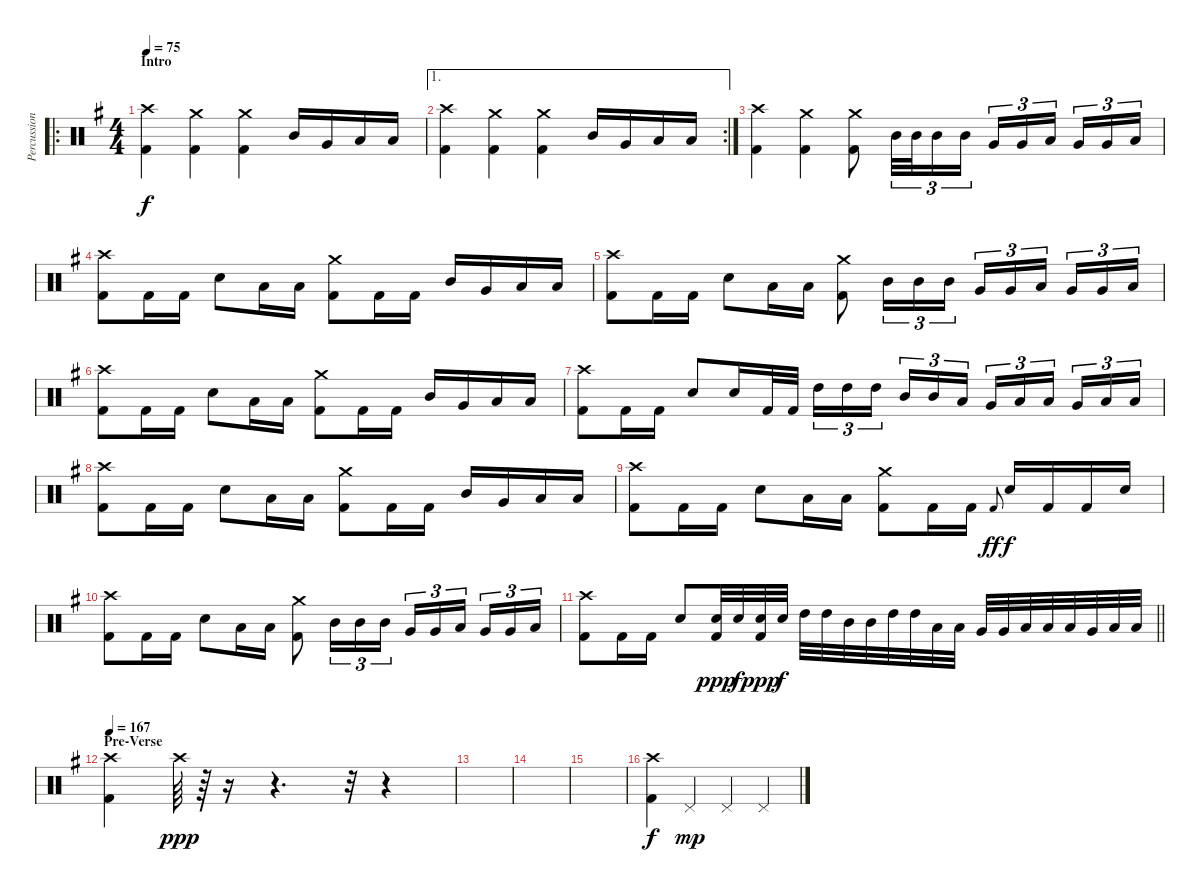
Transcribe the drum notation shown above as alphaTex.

\track ("Percussion" "Percussion") {instrument percussion}
\staff {score}
\articulation defaults
\ro
\ts (4 4)
\section ("" "Intro")
\tempo 75
\clef neutral
\ks g
("Crash high (hit)" "Kick (hit) 2").4{dy f} ("Crash medium (hit)" "Kick (hit) 2").4 ("Crash medium (hit)" "Kick (hit) 2").4 "Mid Tom (hit)".16 "Very Low Tom (hit)".16 "Low Tom (hit)".16 "Low Floor Tom (hit)".16 |
\ae 1
\rc 2
("Crash high (hit)" "Kick (hit) 2").4 ("Crash medium (hit)" "Kick (hit) 2").4 ("Crash medium (hit)" "Kick (hit) 2").4 "Mid Tom (hit)".16 "Very Low Tom (hit)".16 "Low Tom (hit)".16 "Low Floor Tom (hit)".16 |
("Crash high (hit)" "Kick (hit) 2").4 ("Crash medium (hit)" "Kick (hit) 2").4 ("Crash medium (hit)" "Kick (hit) 2").8 "Mid Tom (hit)".32{tu (3 2)} "Mid Tom (hit)".32{tu (3 2)} "Mid Tom (hit)".16{tu (3 2)} "Mid Tom (hit)".16{tu (3 2)} "Very Low Tom (hit)".16{tu (3 2)} "Very Low Tom (hit)".16{tu (3 2)} "Low Tom (hit)".16{tu (3 2) beam splitsecondary} "Very Low Tom (hit)".16{tu (3 2)} "Very Low Tom (hit)".16{tu (3 2)} "Low Floor Tom (hit)".16{tu (3 2)} |
("Crash high (hit)" "Kick (hit) 2").8 "Kick (hit) 2".16 "Kick (hit) 2".16 "Snare (hit) 2".8 "Low Tom (hit)".16 "Low Tom (hit)".16 ("Crash medium (hit)" "Kick (hit) 2").8 "Kick (hit) 2".16 "Kick (hit) 2".16 "Mid Tom (hit)".16 "Very Low Tom (hit)".16 "Low Tom (hit)".16 "Low Floor Tom (hit)".16 |
("Crash high (hit)" "Kick (hit) 2").8 "Kick (hit) 2".16 "Kick (hit) 2".16 "Snare (hit) 2".8 "Low Tom (hit)".16 "Low Tom (hit)".16 ("Crash medium (hit)" "Kick (hit) 2").8 "Mid Tom (hit)".16{tu (3 2)} "Mid Tom (hit)".16{tu (3 2)} "Mid Tom (hit)".16{tu (3 2)} "Very Low Tom (hit)".16{tu (3 2)} "Very Low Tom (hit)".16{tu (3 2)} "Low Tom (hit)".16{tu (3 2) beam splitsecondary} "Very Low Tom (hit)".16{tu (3 2)} "Very Low Tom (hit)".16{tu (3 2)} "Low Floor Tom (hit)".16{tu (3 2)} |
("Crash high (hit)" "Kick (hit) 2").8 "Kick (hit) 2".16 "Kick (hit) 2".16 "Snare (hit) 2".8 "Low Tom (hit)".16 "Low Tom (hit)".16 ("Crash medium (hit)" "Kick (hit) 2").8 "Kick (hit) 2".16 "Kick (hit) 2".16 "Mid Tom (hit)".16 "Very Low Tom (hit)".16 "Low Tom (hit)".16 "Low Floor Tom (hit)".16 |
("Crash high (hit)" "Kick (hit) 2").8 "Kick (hit) 2".16 "Kick (hit) 2".16 "Snare (hit) 2".8 "Snare (hit) 2".16 "Kick (hit) 2".32 "Kick (hit) 2".32 "High Tom (hit)".16{tu (3 2)} "High Tom (hit)".16{tu (3 2)} "High Tom (hit)".16{tu (3 2) beam splitsecondary} "Mid Tom (hit)".16{tu (3 2)} "Mid Tom (hit)".16{tu (3 2)} "Low Tom (hit)".16{tu (3 2)} "Very Low Tom (hit)".16{tu (3 2)} "Low Tom (hit)".16{tu (3 2)} "Low Tom (hit)".16{tu (3 2) beam splitsecondary} "Very Low Tom (hit)".16{tu (3 2)} "Low Floor Tom (hit)".16{tu (3 2)} "Low Floor Tom (hit)".16{tu (3 2)} |
("Crash high (hit)" "Kick (hit) 2").8 "Kick (hit) 2".16 "Kick (hit) 2".16 "Snare (hit) 2".8 "Low Tom (hit)".16 "Low Tom (hit)".16 ("Crash medium (hit)" "Kick (hit) 2").8 "Kick (hit) 2".16 "Kick (hit) 2".16 "Mid Tom (hit)".16 "Very Low Tom (hit)".16 "Low Tom (hit)".16 "Low Floor Tom (hit)".16 |
("Crash high (hit)" "Kick (hit) 2").8 "Kick (hit) 2".16 "Kick (hit) 2".16 "Snare (hit) 2".8 "Low Tom (hit)".16 "Low Tom (hit)".16 ("Crash medium (hit)" "Kick (hit) 2").8 "Kick (hit) 2".16 "Kick (hit) 2".16 "Kick (hit) 2".8{gr onbeat dy ff} "Snare (hit) 2".16{dy f} "Kick (hit) 2".16 "Kick (hit) 2".16 "Snare (hit) 2".16 |
("Crash high (hit)" "Kick (hit) 2").8 "Kick (hit) 2".16 "Kick (hit) 2".16 "Snare (hit) 2".8 "Low Tom (hit)".16 "Low Tom (hit)".16 ("Crash medium (hit)" "Kick (hit) 2").8 "Mid Tom (hit)".16{tu (3 2)} "Mid Tom (hit)".16{tu (3 2)} "Mid Tom (hit)".16{tu (3 2)} "Very Low Tom (hit)".16{tu (3 2)} "Very Low Tom (hit)".16{tu (3 2)} "Low Tom (hit)".16{tu (3 2) beam splitsecondary} "Very Low Tom (hit)".16{tu (3 2)} "Very Low Tom (hit)".16{tu (3 2)} "Low Floor Tom (hit)".16{tu (3 2)} |
\barLineRight lightlight
("Crash high (hit)" "Kick (hit) 2").8 "Kick (hit) 2".16 "Kick (hit) 2".16 "Snare (hit) 2".8 ("Snare (hit) 2" "Kick (hit) 2").32{dy ppp} "Snare (hit) 2".32{dy f} ("Snare (hit) 2" "Kick (hit) 2").32{dy ppp} "Snare (hit) 2".32{dy f} "High Tom (hit)".32 "High Tom (hit)".32 "Mid Tom (hit)".32 "Mid Tom (hit)".32 "High Tom (hit)".32 "High Tom (hit)".32 "Low Tom (hit)".32 "Low Tom (hit)".32 "Very Low Tom (hit)".32 "Very Low Tom (hit)".32 "Low Tom (hit)".32 "Low Tom (hit)".32 "Low Floor Tom (hit)".32 "Very Low Tom (hit)".32 "Low Floor Tom (hit)".32 "Low Floor Tom (hit)".32 |
\section ("" "Pre-Verse")
\tempo 167
("Crash high (hit)" "Kick (hit) 2").4 "Crash high (hit)".64{dy ppp} r.64 r.16 r.4{d} r.32 r.4 |
|
|
|
("Crash high (hit)" "Kick (hit) 2").4{dy f} "Pedal Hi-Hat (hit)".4{dy mp} "Pedal Hi-Hat (hit)".4 "Pedal Hi-Hat (hit)".4
